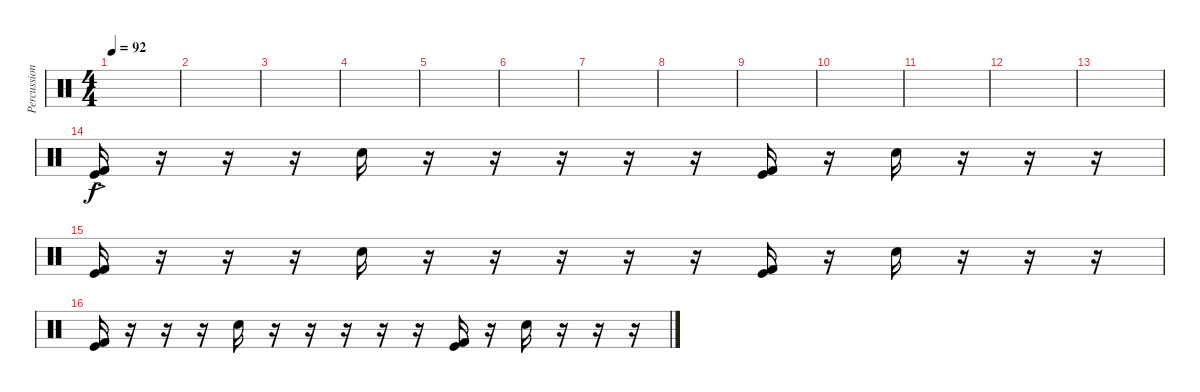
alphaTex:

\track ("Percussion" "Percussion") {instrument percussion}
\staff {score}
\articulation defaults
\ts (4 4)
\tempo 92
\clef neutral
\ks c
|
|
|
|
|
|
|
|
|
|
|
|
|
("Kick (hit)"{ac} "Kick (hit) 2"{ac}).16 r.16 r.16 r.16 "Snare (hit) 2".16{dy f} r.16 r.16 r.16 r.16 r.16 ("Kick (hit)" "Kick (hit) 2").16 r.16 "Snare (hit) 2".16 r.16 r.16 r.16 |
("Kick (hit)" "Kick (hit) 2").16 r.16 r.16 r.16 "Snare (hit) 2".16 r.16 r.16 r.16 r.16 r.16 ("Kick (hit)" "Kick (hit) 2").16 r.16 "Snare (hit) 2".16 r.16 r.16 r.16 |
("Kick (hit)" "Kick (hit) 2").16 r.16 r.16 r.16 "Snare (hit) 2".16 r.16 r.16 r.16 r.16 r.16 ("Kick (hit)" "Kick (hit) 2").16 r.16 "Snare (hit) 2".16 r.16 r.16 r.16
